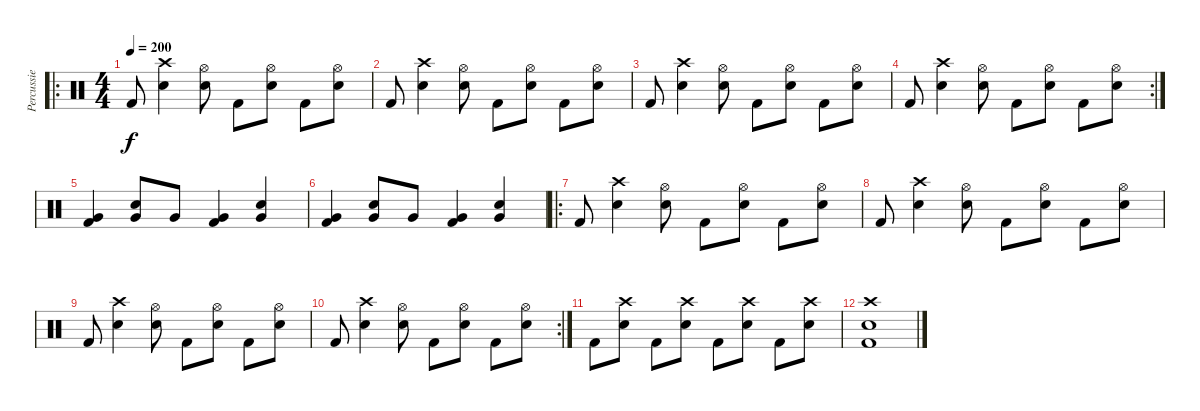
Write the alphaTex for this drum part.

\track ("Percussie" "Percussie") {instrument percussion}
\staff {score}
\articulation defaults
\ro
\ts (4 4)
\tempo 200
\clef neutral
\ks c "Kick (hit) 2".8{dy f}
("Crash high (hit)" "Snare (hit) 2").4 ("Hi-Hat (open)" "Snare (hit) 2").8 "Kick (hit) 2".8 ("Hi-Hat (open)" "Snare (hit) 2").8 "Kick (hit) 2".8 ("Hi-Hat (open)" "Snare (hit) 2").8 |
"Kick (hit) 2".8 ("Crash high (hit)" "Snare (hit) 2").4 ("Hi-Hat (open)" "Snare (hit) 2").8 "Kick (hit) 2".8 ("Hi-Hat (open)" "Snare (hit) 2").8 "Kick (hit) 2".8 ("Hi-Hat (open)" "Snare (hit) 2").8 |
"Kick (hit) 2".8 ("Crash high (hit)" "Snare (hit) 2").4 ("Hi-Hat (open)" "Snare (hit) 2").8 "Kick (hit) 2".8 ("Hi-Hat (open)" "Snare (hit) 2").8 "Kick (hit) 2".8 ("Hi-Hat (open)" "Snare (hit) 2").8 |
\rc 2 "Kick (hit) 2".8
("Crash high (hit)" "Snare (hit) 2").4 ("Hi-Hat (open)" "Snare (hit) 2").8 "Kick (hit) 2".8 ("Hi-Hat (open)" "Snare (hit) 2").8 "Kick (hit) 2".8 ("Hi-Hat (open)" "Snare (hit) 2").8 |
("Very Low Tom (hit)" "Kick (hit) 2").4 ("Very Low Tom (hit)" "Snare (hit) 2").8 "Very Low Tom (hit)".8 ("Very Low Tom (hit)" "Kick (hit) 2").4 ("Very Low Tom (hit)" "Snare (hit) 2").4 |
("Very Low Tom (hit)" "Kick (hit) 2").4 ("Very Low Tom (hit)" "Snare (hit) 2").8 "Very Low Tom (hit)".8 ("Very Low Tom (hit)" "Kick (hit) 2").4 ("Very Low Tom (hit)" "Snare (hit) 2").4 |
\ro "Kick (hit) 2".8
("Crash high (hit)" "Snare (hit) 2").4 ("Hi-Hat (open)" "Snare (hit) 2").8 "Kick (hit) 2".8 ("Hi-Hat (open)" "Snare (hit) 2").8 "Kick (hit) 2".8 ("Hi-Hat (open)" "Snare (hit) 2").8 |
"Kick (hit) 2".8 ("Crash high (hit)" "Snare (hit) 2").4 ("Hi-Hat (open)" "Snare (hit) 2").8 "Kick (hit) 2".8 ("Hi-Hat (open)" "Snare (hit) 2").8 "Kick (hit) 2".8 ("Hi-Hat (open)" "Snare (hit) 2").8 |
"Kick (hit) 2".8 ("Crash high (hit)" "Snare (hit) 2").4 ("Hi-Hat (open)" "Snare (hit) 2").8 "Kick (hit) 2".8 ("Hi-Hat (open)" "Snare (hit) 2").8 "Kick (hit) 2".8 ("Hi-Hat (open)" "Snare (hit) 2").8 |
\rc 2 "Kick (hit) 2".8
("Crash high (hit)" "Snare (hit) 2").4 ("Hi-Hat (open)" "Snare (hit) 2").8 "Kick (hit) 2".8 ("Hi-Hat (open)" "Snare (hit) 2").8 "Kick (hit) 2".8 ("Hi-Hat (open)" "Snare (hit) 2").8 |
"Kick (hit) 2".8 ("Crash high (hit)" "Snare (hit) 2").8 "Kick (hit) 2".8 ("Crash high (hit)" "Snare (hit) 2").8 "Kick (hit) 2".8 ("Crash high (hit)" "Snare (hit) 2").8 "Kick (hit) 2".8 ("Crash high (hit)" "Snare (hit) 2").8 |
("Crash high (hit)" "Snare (hit) 2" "Kick (hit) 2").1
